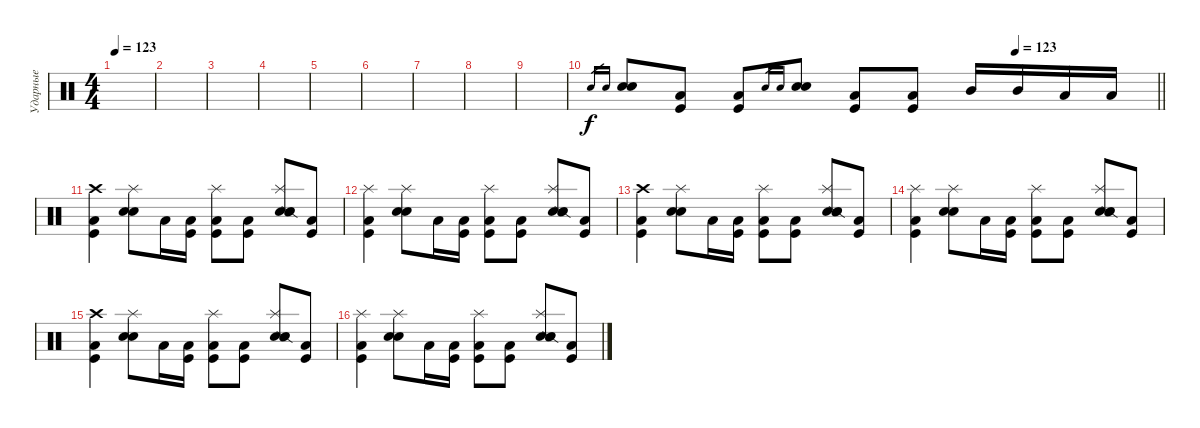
\track ("Ударные" "Ударные") {instrument percussion}
\staff {score}
\articulation defaults
\ts (4 4)
\tempo 123
\clef neutral
\ks c
|
|
|
|
|
|
|
|
|
\tempo (123 0.75)
\barLineRight lightlight "Electric Snare (hit)".16{gr} "Snare (hit) 2".16{gr}
("Electric Snare (hit)" "Snare (hit) 2").8 ("Low Tom (hit)" "Kick (hit)").8 ("Low Tom (hit)" "Kick (hit)").8 "Electric Snare (hit)".16{gr} "Snare (hit) 2".16{gr} ("Electric Snare (hit)" "Snare (hit) 2").8 ("Low Tom (hit)" "Kick (hit)").8 ("Low Tom (hit)" "Kick (hit)").8 "Mid Tom (hit)".16 "Mid Tom (hit)".16 "Low Tom (hit)".16 "Low Tom (hit)".16 |
("Crash high (hit)" "Low Tom (hit)" "Kick (hit)").4 ("Splash (hit)" "Electric Snare (hit)" "Snare (hit) 2").8 "Low Floor Tom (hit)".16 ("Low Tom (hit)" "Kick (hit)").16 ("Splash (hit)" "Low Tom (hit)" "Kick (hit)").8 ("Low Tom (hit)" "Kick (hit)").8 ("Splash (hit)" "Electric Snare (hit)" "Snare (hit) 2" "Snare (side stick) 2").8 ("Low Tom (hit)" "Kick (hit)").8 |
("Splash (hit)" "Low Tom (hit)" "Kick (hit)").4 ("Splash (hit)" "Electric Snare (hit)" "Snare (hit) 2").8 "Low Floor Tom (hit)".16 ("Low Tom (hit)" "Kick (hit)").16 ("Splash (hit)" "Low Tom (hit)" "Kick (hit)").8 ("Low Tom (hit)" "Kick (hit)").8 ("Splash (hit)" "Electric Snare (hit)" "Snare (hit) 2" "Snare (side stick) 2").8 ("Low Tom (hit)" "Kick (hit)").8 |
("Crash high (hit)" "Low Tom (hit)" "Kick (hit)").4 ("Splash (hit)" "Electric Snare (hit)" "Snare (hit) 2").8 "Low Floor Tom (hit)".16 ("Low Tom (hit)" "Kick (hit)").16 ("Splash (hit)" "Low Tom (hit)" "Kick (hit)").8 ("Low Tom (hit)" "Kick (hit)").8 ("Splash (hit)" "Electric Snare (hit)" "Snare (hit) 2" "Snare (side stick) 2").8 ("Low Tom (hit)" "Kick (hit)").8 |
("Splash (hit)" "Low Tom (hit)" "Kick (hit)").4 ("Splash (hit)" "Electric Snare (hit)" "Snare (hit) 2").8 "Low Floor Tom (hit)".16 ("Low Tom (hit)" "Kick (hit)").16 ("Splash (hit)" "Low Tom (hit)" "Kick (hit)").8 ("Low Tom (hit)" "Kick (hit)").8 ("Splash (hit)" "Electric Snare (hit)" "Snare (hit) 2" "Snare (side stick) 2").8 ("Low Tom (hit)" "Kick (hit)").8 |
("Crash high (hit)" "Low Tom (hit)" "Kick (hit)").4 ("Splash (hit)" "Electric Snare (hit)" "Snare (hit) 2").8 "Low Floor Tom (hit)".16 ("Low Tom (hit)" "Kick (hit)").16 ("Splash (hit)" "Low Tom (hit)" "Kick (hit)").8 ("Low Tom (hit)" "Kick (hit)").8 ("Splash (hit)" "Electric Snare (hit)" "Snare (hit) 2" "Snare (side stick) 2").8 ("Low Tom (hit)" "Kick (hit)").8 |
("Splash (hit)" "Low Tom (hit)" "Kick (hit)").4 ("Splash (hit)" "Electric Snare (hit)" "Snare (hit) 2").8 "Low Floor Tom (hit)".16 ("Low Tom (hit)" "Kick (hit)").16 ("Splash (hit)" "Low Tom (hit)" "Kick (hit)").8 ("Low Tom (hit)" "Kick (hit)").8 ("Splash (hit)" "Electric Snare (hit)" "Snare (hit) 2" "Snare (side stick) 2").8 ("Low Tom (hit)" "Kick (hit)").8
